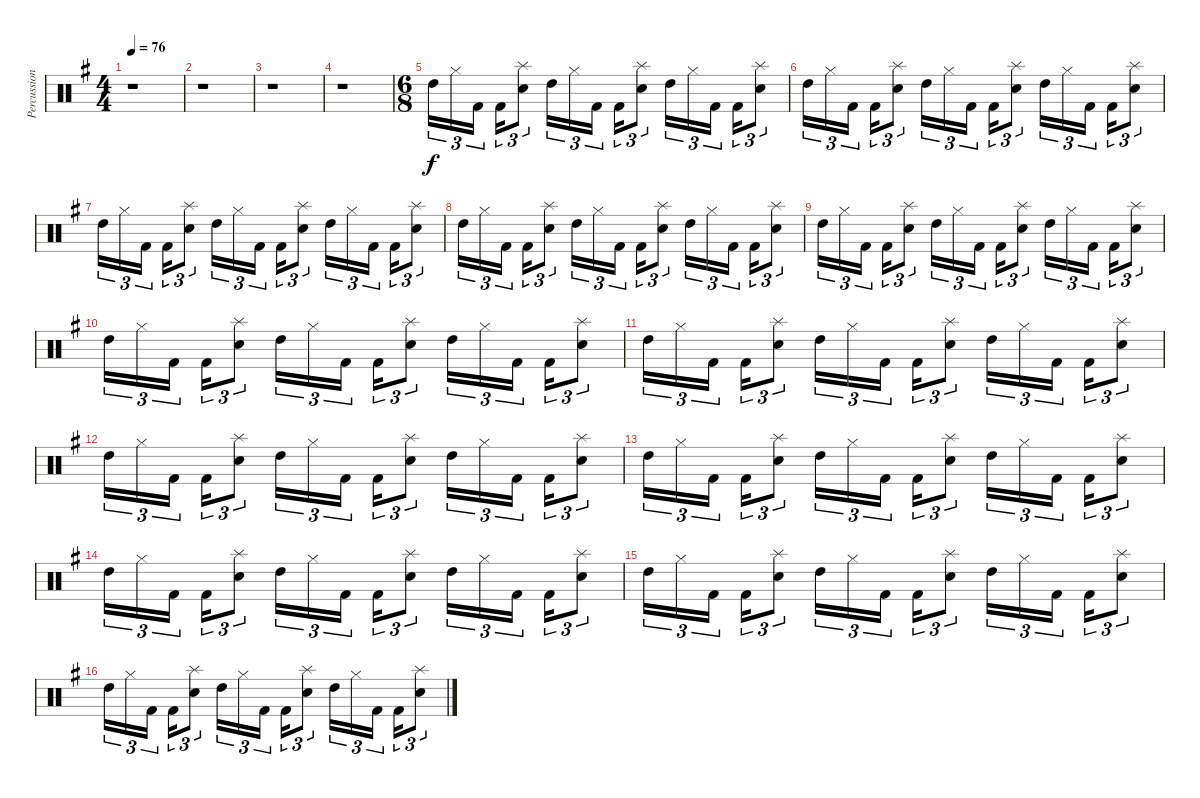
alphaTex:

\track ("Percussions 3" "Percussion") {instrument percussion}
\staff {score}
\articulation defaults
\ts (4 4)
\tempo 76
\clef neutral
\ks g
r.1{dy f} |
r.1 |
r.1 |
r.1 |
\ts (6 8)
"High Tom (hit)".16{tu (3 2)} "Hi-Hat (closed)".16{tu (3 2)} "Kick (hit) 2".16{tu (3 2)} "Kick (hit) 2".16{tu (3 2)} ("Splash (hit)" "Snare (hit) 2").8{tu (3 2)} "High Tom (hit)".16{tu (3 2)} "Hi-Hat (closed)".16{tu (3 2)} "Kick (hit) 2".16{tu (3 2)} "Kick (hit) 2".16{tu (3 2)} ("Splash (hit)" "Snare (hit) 2").8{tu (3 2)} "High Tom (hit)".16{tu (3 2)} "Hi-Hat (closed)".16{tu (3 2)} "Kick (hit) 2".16{tu (3 2)} "Kick (hit) 2".16{tu (3 2)} ("Splash (hit)" "Snare (hit) 2").8{tu (3 2)} |
"High Tom (hit)".16{tu (3 2)} "Hi-Hat (closed)".16{tu (3 2)} "Kick (hit) 2".16{tu (3 2)} "Kick (hit) 2".16{tu (3 2)} ("Splash (hit)" "Snare (hit) 2").8{tu (3 2)} "High Tom (hit)".16{tu (3 2)} "Hi-Hat (closed)".16{tu (3 2)} "Kick (hit) 2".16{tu (3 2)} "Kick (hit) 2".16{tu (3 2)} ("Splash (hit)" "Snare (hit) 2").8{tu (3 2)} "High Tom (hit)".16{tu (3 2)} "Hi-Hat (closed)".16{tu (3 2)} "Kick (hit) 2".16{tu (3 2)} "Kick (hit) 2".16{tu (3 2)} ("Splash (hit)" "Snare (hit) 2").8{tu (3 2)} |
"High Tom (hit)".16{tu (3 2)} "Hi-Hat (closed)".16{tu (3 2)} "Kick (hit) 2".16{tu (3 2)} "Kick (hit) 2".16{tu (3 2)} ("Splash (hit)" "Snare (hit) 2").8{tu (3 2)} "High Tom (hit)".16{tu (3 2)} "Hi-Hat (closed)".16{tu (3 2)} "Kick (hit) 2".16{tu (3 2)} "Kick (hit) 2".16{tu (3 2)} ("Splash (hit)" "Snare (hit) 2").8{tu (3 2)} "High Tom (hit)".16{tu (3 2)} "Hi-Hat (closed)".16{tu (3 2)} "Kick (hit) 2".16{tu (3 2)} "Kick (hit) 2".16{tu (3 2)} ("Splash (hit)" "Snare (hit) 2").8{tu (3 2)} |
"High Tom (hit)".16{tu (3 2)} "Hi-Hat (closed)".16{tu (3 2)} "Kick (hit) 2".16{tu (3 2)} "Kick (hit) 2".16{tu (3 2)} ("Splash (hit)" "Snare (hit) 2").8{tu (3 2)} "High Tom (hit)".16{tu (3 2)} "Hi-Hat (closed)".16{tu (3 2)} "Kick (hit) 2".16{tu (3 2)} "Kick (hit) 2".16{tu (3 2)} ("Splash (hit)" "Snare (hit) 2").8{tu (3 2)} "High Tom (hit)".16{tu (3 2)} "Hi-Hat (closed)".16{tu (3 2)} "Kick (hit) 2".16{tu (3 2)} "Kick (hit) 2".16{tu (3 2)} ("Splash (hit)" "Snare (hit) 2").8{tu (3 2)} |
"High Tom (hit)".16{tu (3 2)} "Hi-Hat (closed)".16{tu (3 2)} "Kick (hit) 2".16{tu (3 2)} "Kick (hit) 2".16{tu (3 2)} ("Splash (hit)" "Snare (hit) 2").8{tu (3 2)} "High Tom (hit)".16{tu (3 2)} "Hi-Hat (closed)".16{tu (3 2)} "Kick (hit) 2".16{tu (3 2)} "Kick (hit) 2".16{tu (3 2)} ("Splash (hit)" "Snare (hit) 2").8{tu (3 2)} "High Tom (hit)".16{tu (3 2)} "Hi-Hat (closed)".16{tu (3 2)} "Kick (hit) 2".16{tu (3 2)} "Kick (hit) 2".16{tu (3 2)} ("Splash (hit)" "Snare (hit) 2").8{tu (3 2)} |
"High Tom (hit)".16{tu (3 2)} "Hi-Hat (closed)".16{tu (3 2)} "Kick (hit) 2".16{tu (3 2)} "Kick (hit) 2".16{tu (3 2)} ("Splash (hit)" "Snare (hit) 2").8{tu (3 2)} "High Tom (hit)".16{tu (3 2)} "Hi-Hat (closed)".16{tu (3 2)} "Kick (hit) 2".16{tu (3 2)} "Kick (hit) 2".16{tu (3 2)} ("Splash (hit)" "Snare (hit) 2").8{tu (3 2)} "High Tom (hit)".16{tu (3 2)} "Hi-Hat (closed)".16{tu (3 2)} "Kick (hit) 2".16{tu (3 2)} "Kick (hit) 2".16{tu (3 2)} ("Splash (hit)" "Snare (hit) 2").8{tu (3 2)} |
"High Tom (hit)".16{tu (3 2)} "Hi-Hat (closed)".16{tu (3 2)} "Kick (hit) 2".16{tu (3 2)} "Kick (hit) 2".16{tu (3 2)} ("Splash (hit)" "Snare (hit) 2").8{tu (3 2)} "High Tom (hit)".16{tu (3 2)} "Hi-Hat (closed)".16{tu (3 2)} "Kick (hit) 2".16{tu (3 2)} "Kick (hit) 2".16{tu (3 2)} ("Splash (hit)" "Snare (hit) 2").8{tu (3 2)} "High Tom (hit)".16{tu (3 2)} "Hi-Hat (closed)".16{tu (3 2)} "Kick (hit) 2".16{tu (3 2)} "Kick (hit) 2".16{tu (3 2)} ("Splash (hit)" "Snare (hit) 2").8{tu (3 2)} |
"High Tom (hit)".16{tu (3 2)} "Hi-Hat (closed)".16{tu (3 2)} "Kick (hit) 2".16{tu (3 2)} "Kick (hit) 2".16{tu (3 2)} ("Splash (hit)" "Snare (hit) 2").8{tu (3 2)} "High Tom (hit)".16{tu (3 2)} "Hi-Hat (closed)".16{tu (3 2)} "Kick (hit) 2".16{tu (3 2)} "Kick (hit) 2".16{tu (3 2)} ("Splash (hit)" "Snare (hit) 2").8{tu (3 2)} "High Tom (hit)".16{tu (3 2)} "Hi-Hat (closed)".16{tu (3 2)} "Kick (hit) 2".16{tu (3 2)} "Kick (hit) 2".16{tu (3 2)} ("Splash (hit)" "Snare (hit) 2").8{tu (3 2)} |
"High Tom (hit)".16{tu (3 2)} "Hi-Hat (closed)".16{tu (3 2)} "Kick (hit) 2".16{tu (3 2)} "Kick (hit) 2".16{tu (3 2)} ("Splash (hit)" "Snare (hit) 2").8{tu (3 2)} "High Tom (hit)".16{tu (3 2)} "Hi-Hat (closed)".16{tu (3 2)} "Kick (hit) 2".16{tu (3 2)} "Kick (hit) 2".16{tu (3 2)} ("Splash (hit)" "Snare (hit) 2").8{tu (3 2)} "High Tom (hit)".16{tu (3 2)} "Hi-Hat (closed)".16{tu (3 2)} "Kick (hit) 2".16{tu (3 2)} "Kick (hit) 2".16{tu (3 2)} ("Splash (hit)" "Snare (hit) 2").8{tu (3 2)} |
"High Tom (hit)".16{tu (3 2)} "Hi-Hat (closed)".16{tu (3 2)} "Kick (hit) 2".16{tu (3 2)} "Kick (hit) 2".16{tu (3 2)} ("Splash (hit)" "Snare (hit) 2").8{tu (3 2)} "High Tom (hit)".16{tu (3 2)} "Hi-Hat (closed)".16{tu (3 2)} "Kick (hit) 2".16{tu (3 2)} "Kick (hit) 2".16{tu (3 2)} ("Splash (hit)" "Snare (hit) 2").8{tu (3 2)} "High Tom (hit)".16{tu (3 2)} "Hi-Hat (closed)".16{tu (3 2)} "Kick (hit) 2".16{tu (3 2)} "Kick (hit) 2".16{tu (3 2)} ("Splash (hit)" "Snare (hit) 2").8{tu (3 2)} |
"High Tom (hit)".16{tu (3 2)} "Hi-Hat (closed)".16{tu (3 2)} "Kick (hit) 2".16{tu (3 2)} "Kick (hit) 2".16{tu (3 2)} ("Splash (hit)" "Snare (hit) 2").8{tu (3 2)} "High Tom (hit)".16{tu (3 2)} "Hi-Hat (closed)".16{tu (3 2)} "Kick (hit) 2".16{tu (3 2)} "Kick (hit) 2".16{tu (3 2)} ("Splash (hit)" "Snare (hit) 2").8{tu (3 2)} "High Tom (hit)".16{tu (3 2)} "Hi-Hat (closed)".16{tu (3 2)} "Kick (hit) 2".16{tu (3 2)} "Kick (hit) 2".16{tu (3 2)} ("Splash (hit)" "Snare (hit) 2").8{tu (3 2)} |
"High Tom (hit)".16{tu (3 2)} "Hi-Hat (closed)".16{tu (3 2)} "Kick (hit) 2".16{tu (3 2)} "Kick (hit) 2".16{tu (3 2)} ("Splash (hit)" "Snare (hit) 2").8{tu (3 2)} "High Tom (hit)".16{tu (3 2)} "Hi-Hat (closed)".16{tu (3 2)} "Kick (hit) 2".16{tu (3 2)} "Kick (hit) 2".16{tu (3 2)} ("Splash (hit)" "Snare (hit) 2").8{tu (3 2)} "High Tom (hit)".16{tu (3 2)} "Hi-Hat (closed)".16{tu (3 2)} "Kick (hit) 2".16{tu (3 2)} "Kick (hit) 2".16{tu (3 2)} ("Splash (hit)" "Snare (hit) 2").8{tu (3 2)}
